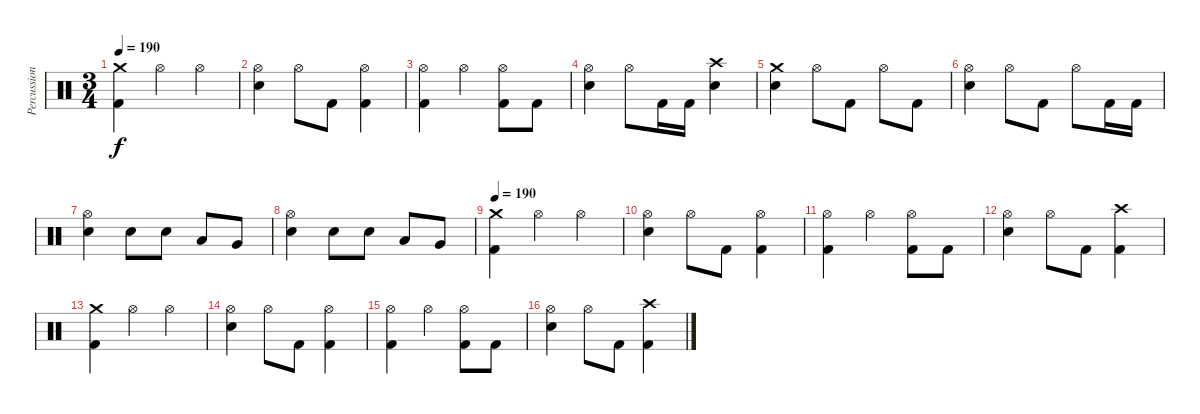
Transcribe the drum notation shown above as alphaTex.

\track ("Percussions" "Percussion") {instrument percussion}
\staff {score}
\articulation defaults
\ts (3 4)
\tempo 200
\tempo 190
\clef neutral
\ks c
("Crash medium (hit)" "Kick (hit) 2").4{dy f} "Hi-Hat (open)".4 "Hi-Hat (open)".4 |
("Hi-Hat (open)" "Electric Snare (hit)").4 "Hi-Hat (open)".8 "Kick (hit) 2".8 ("Hi-Hat (open)" "Kick (hit) 2").4 |
("Hi-Hat (open)" "Kick (hit) 2").4 "Hi-Hat (open)".4 ("Hi-Hat (open)" "Kick (hit) 2").8 "Kick (hit) 2".8 |
("Hi-Hat (open)" "Electric Snare (hit)").4 "Hi-Hat (open)".8 "Kick (hit) 2".16 "Kick (hit) 2".16 ("Crash high (hit)" "Electric Snare (hit)").4 |
("Crash medium (hit)" "Electric Snare (hit)").4 "Hi-Hat (open)".8 "Kick (hit) 2".8 "Hi-Hat (open)".8 "Kick (hit) 2".8 |
("Hi-Hat (open)" "Electric Snare (hit)").4 "Hi-Hat (open)".8 "Kick (hit) 2".8 "Hi-Hat (open)".8 "Kick (hit) 2".16 "Kick (hit) 2".16 |
("Hi-Hat (open)" "Electric Snare (hit)").4 "Electric Snare (hit)".8 "Electric Snare (hit)".8 "Low Tom (hit)".8 "Very Low Tom (hit)".8 |
("Hi-Hat (open)" "Electric Snare (hit)").4 "Electric Snare (hit)".8 "Electric Snare (hit)".8 "Low Tom (hit)".8 "Very Low Tom (hit)".8 |
\tempo 190
("Crash medium (hit)" "Kick (hit) 2").4 "Hi-Hat (open)".4 "Hi-Hat (open)".4 |
("Hi-Hat (open)" "Electric Snare (hit)").4 "Hi-Hat (open)".8 "Kick (hit) 2".8 ("Hi-Hat (open)" "Kick (hit) 2").4 |
("Hi-Hat (open)" "Kick (hit) 2").4 "Hi-Hat (open)".4 ("Hi-Hat (open)" "Kick (hit) 2").8 "Kick (hit) 2".8 |
("Hi-Hat (open)" "Electric Snare (hit)").4 "Hi-Hat (open)".8 "Kick (hit) 2".8 ("Crash high (hit)" "Kick (hit) 2").4 |
("Crash medium (hit)" "Kick (hit) 2").4 "Hi-Hat (open)".4 "Hi-Hat (open)".4 |
("Hi-Hat (open)" "Electric Snare (hit)").4 "Hi-Hat (open)".8 "Kick (hit) 2".8 ("Hi-Hat (open)" "Kick (hit) 2").4 |
("Hi-Hat (open)" "Kick (hit) 2").4 "Hi-Hat (open)".4 ("Hi-Hat (open)" "Kick (hit) 2").8 "Kick (hit) 2".8 |
("Hi-Hat (open)" "Electric Snare (hit)").4 "Hi-Hat (open)".8 "Kick (hit) 2".8 ("Crash high (hit)" "Kick (hit) 2").4
